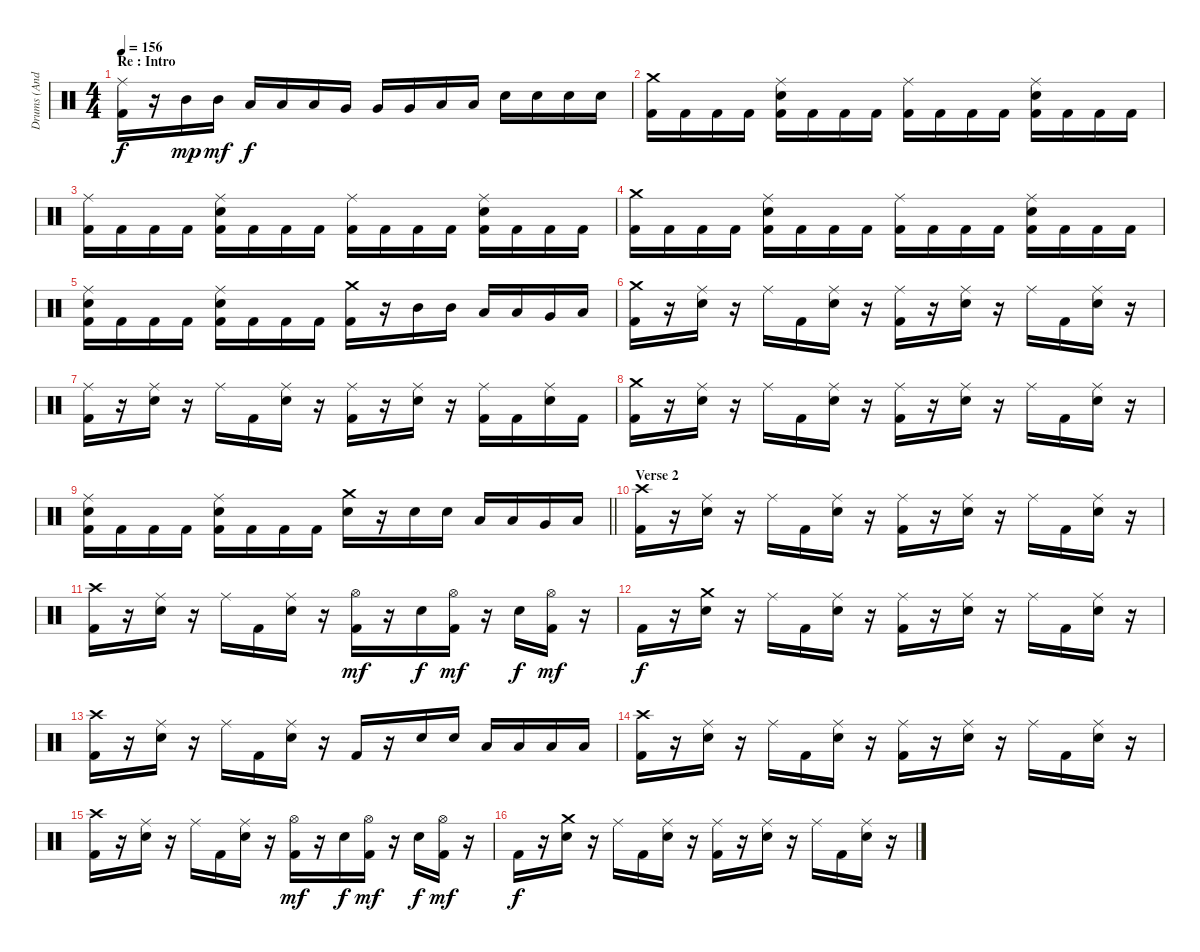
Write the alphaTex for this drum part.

\track ("Drums (Andy C)" "Drums (And") {instrument percussion}
\staff
\articulation defaults
\ts (4 4)
\section ("" "Re : Intro")
\tempo 156
\clef neutral
\ks c
("Ride (middle)" "Kick (hit) 2").16{dy f} r.16 "Mid Tom (hit)".16{dy mp} "Mid Tom (hit)".16{dy mf} "Low Tom (hit)".16{dy f} "Low Tom (hit)".16 "Low Tom (hit)".16 "Very Low Tom (hit)".16 "Very Low Tom (hit)".16 "Very Low Tom (hit)".16 "Low Floor Tom (hit)".16 "Low Floor Tom (hit)".16 "Electric Snare (hit)".16 "Electric Snare (hit)".16 "Electric Snare (hit)".16 "Electric Snare (hit)".16 |
("Crash medium (hit)" "Kick (hit) 2").16 "Kick (hit) 2".16 "Kick (hit) 2".16 "Kick (hit) 2".16 ("Ride (middle)" "Kick (hit) 2" "Electric Snare (hit)").16 "Kick (hit) 2".16 "Kick (hit) 2".16 "Kick (hit) 2".16 ("Ride (middle)" "Kick (hit) 2").16 "Kick (hit) 2".16 "Kick (hit) 2".16 "Kick (hit) 2".16 ("Ride (middle)" "Kick (hit) 2" "Electric Snare (hit)").16 "Kick (hit) 2".16 "Kick (hit) 2".16 "Kick (hit) 2".16 |
("Ride (middle)" "Kick (hit) 2").16 "Kick (hit) 2".16 "Kick (hit) 2".16 "Kick (hit) 2".16 ("Ride (middle)" "Kick (hit) 2" "Electric Snare (hit)").16 "Kick (hit) 2".16 "Kick (hit) 2".16 "Kick (hit) 2".16 ("Ride (middle)" "Kick (hit) 2").16 "Kick (hit) 2".16 "Kick (hit) 2".16 "Kick (hit) 2".16 ("Ride (middle)" "Kick (hit) 2" "Electric Snare (hit)").16 "Kick (hit) 2".16 "Kick (hit) 2".16 "Kick (hit) 2".16 |
("Crash medium (hit)" "Kick (hit) 2").16 "Kick (hit) 2".16 "Kick (hit) 2".16 "Kick (hit) 2".16 ("Ride (middle)" "Kick (hit) 2" "Electric Snare (hit)").16 "Kick (hit) 2".16 "Kick (hit) 2".16 "Kick (hit) 2".16 ("Ride (middle)" "Kick (hit) 2").16 "Kick (hit) 2".16 "Kick (hit) 2".16 "Kick (hit) 2".16 ("Ride (middle)" "Kick (hit) 2" "Electric Snare (hit)").16 "Kick (hit) 2".16 "Kick (hit) 2".16 "Kick (hit) 2".16 |
("Ride (middle)" "Kick (hit) 2" "Electric Snare (hit)").16 "Kick (hit) 2".16 "Kick (hit) 2".16 "Kick (hit) 2".16 ("Ride (middle)" "Kick (hit) 2" "Electric Snare (hit)").16 "Kick (hit) 2".16 "Kick (hit) 2".16 "Kick (hit) 2".16 ("Crash medium (hit)" "Kick (hit) 2").16 r.16 "Mid Tom (hit)".16 "Mid Tom (hit)".16 "Low Tom (hit)".16 "Low Tom (hit)".16 "Very Low Tom (hit)".16 "Low Floor Tom (hit)".16 |
("Crash medium (hit)" "Kick (hit) 2").16 r.16 ("Ride (middle)" "Electric Snare (hit)").16 r.16 "Ride (middle)".16 "Kick (hit) 2".16 ("Ride (middle)" "Electric Snare (hit)").16 r.16 ("Ride (middle)" "Kick (hit) 2").16 r.16 ("Ride (middle)" "Electric Snare (hit)").16 r.16 "Ride (middle)".16 "Kick (hit) 2".16 ("Ride (middle)" "Electric Snare (hit)").16 r.16 |
("Ride (middle)" "Kick (hit) 2").16 r.16 ("Ride (middle)" "Electric Snare (hit)").16 r.16 "Ride (middle)".16 "Kick (hit) 2".16 ("Ride (middle)" "Electric Snare (hit)").16 r.16 ("Ride (middle)" "Kick (hit) 2").16 r.16 ("Ride (middle)" "Electric Snare (hit)").16 r.16 ("Ride (middle)" "Kick (hit) 2").16 "Kick (hit) 2".16 ("Ride (middle)" "Electric Snare (hit)").16 "Kick (hit) 2".16 |
("Crash medium (hit)" "Kick (hit) 2").16 r.16 ("Ride (middle)" "Electric Snare (hit)").16 r.16 "Ride (middle)".16 "Kick (hit) 2".16 ("Ride (middle)" "Electric Snare (hit)").16 r.16 ("Ride (middle)" "Kick (hit) 2").16 r.16 ("Ride (middle)" "Electric Snare (hit)").16 r.16 "Ride (middle)".16 "Kick (hit) 2".16 ("Ride (middle)" "Electric Snare (hit)").16 r.16 |
\barLineRight lightlight
("Ride (middle)" "Kick (hit) 2" "Electric Snare (hit)").16 "Kick (hit) 2".16 "Kick (hit) 2".16 "Kick (hit) 2".16 ("Ride (middle)" "Kick (hit) 2" "Electric Snare (hit)").16 "Kick (hit) 2".16 "Kick (hit) 2".16 "Kick (hit) 2".16 ("Crash medium (hit)" "Electric Snare (hit)").16 r.16 "Electric Snare (hit)".16 "Electric Snare (hit)".16 "Low Tom (hit)".16 "Low Tom (hit)".16 "Very Low Tom (hit)".16 "Low Floor Tom (hit)".16 |
\section ("" "Verse 2")
("Crash high (hit)" "Kick (hit) 2").16 r.16 ("Ride (middle)" "Electric Snare (hit)").16 r.16 "Ride (middle)".16 "Kick (hit) 2".16 ("Ride (middle)" "Electric Snare (hit)").16 r.16 ("Ride (middle)" "Kick (hit) 2").16 r.16 ("Ride (middle)" "Electric Snare (hit)").16 r.16 "Ride (middle)".16 "Kick (hit) 2".16 ("Ride (middle)" "Electric Snare (hit)").16 r.16 |
("Crash high (hit)" "Kick (hit) 2").16 r.16 ("Ride (middle)" "Electric Snare (hit)").16 r.16 "Ride (middle)".16 "Kick (hit) 2".16 ("Ride (middle)" "Electric Snare (hit)").16 r.16 ("Hi-Hat (open)" "Kick (hit) 2").16{dy mf} r.16 "Electric Snare (hit)".16{dy f} ("Hi-Hat (open)" "Kick (hit) 2").16{dy mf} r.16 "Electric Snare (hit)".16{dy f} ("Hi-Hat (open)" "Kick (hit) 2").16{dy mf} r.16 |
"Kick (hit) 2".16{dy f} r.16 ("Crash medium (hit)" "Electric Snare (hit)").16 r.16 "Ride (middle)".16 "Kick (hit) 2".16 ("Ride (middle)" "Electric Snare (hit)").16 r.16 ("Ride (middle)" "Kick (hit) 2").16 r.16 ("Ride (middle)" "Electric Snare (hit)").16 r.16 "Ride (middle)".16 "Kick (hit) 2".16 ("Ride (middle)" "Electric Snare (hit)").16 r.16 |
("Crash high (hit)" "Kick (hit) 2").16 r.16 ("Ride (middle)" "Electric Snare (hit)").16 r.16 "Ride (middle)".16 "Kick (hit) 2".16 ("Ride (middle)" "Electric Snare (hit)").16 r.16 "Kick (hit) 2".16 r.16 "Electric Snare (hit)".16 "Electric Snare (hit)".16 "Low Tom (hit)".16 "Low Tom (hit)".16 "Low Floor Tom (hit)".16 "Low Floor Tom (hit)".16 |
("Crash high (hit)" "Kick (hit) 2").16 r.16 ("Ride (middle)" "Electric Snare (hit)").16 r.16 "Ride (middle)".16 "Kick (hit) 2".16 ("Ride (middle)" "Electric Snare (hit)").16 r.16 ("Ride (middle)" "Kick (hit) 2").16 r.16 ("Ride (middle)" "Electric Snare (hit)").16 r.16 "Ride (middle)".16 "Kick (hit) 2".16 ("Ride (middle)" "Electric Snare (hit)").16 r.16 |
("Crash high (hit)" "Kick (hit) 2").16 r.16 ("Ride (middle)" "Electric Snare (hit)").16 r.16 "Ride (middle)".16 "Kick (hit) 2".16 ("Ride (middle)" "Electric Snare (hit)").16 r.16 ("Hi-Hat (open)" "Kick (hit) 2").16{dy mf} r.16 "Electric Snare (hit)".16{dy f} ("Hi-Hat (open)" "Kick (hit) 2").16{dy mf} r.16 "Electric Snare (hit)".16{dy f} ("Hi-Hat (open)" "Kick (hit) 2").16{dy mf} r.16 |
"Kick (hit) 2".16{dy f} r.16 ("Crash medium (hit)" "Electric Snare (hit)").16 r.16 "Ride (middle)".16 "Kick (hit) 2".16 ("Ride (middle)" "Electric Snare (hit)").16 r.16 ("Ride (middle)" "Kick (hit) 2").16 r.16 ("Ride (middle)" "Electric Snare (hit)").16 r.16 "Ride (middle)".16 "Kick (hit) 2".16 ("Ride (middle)" "Electric Snare (hit)").16 r.16
